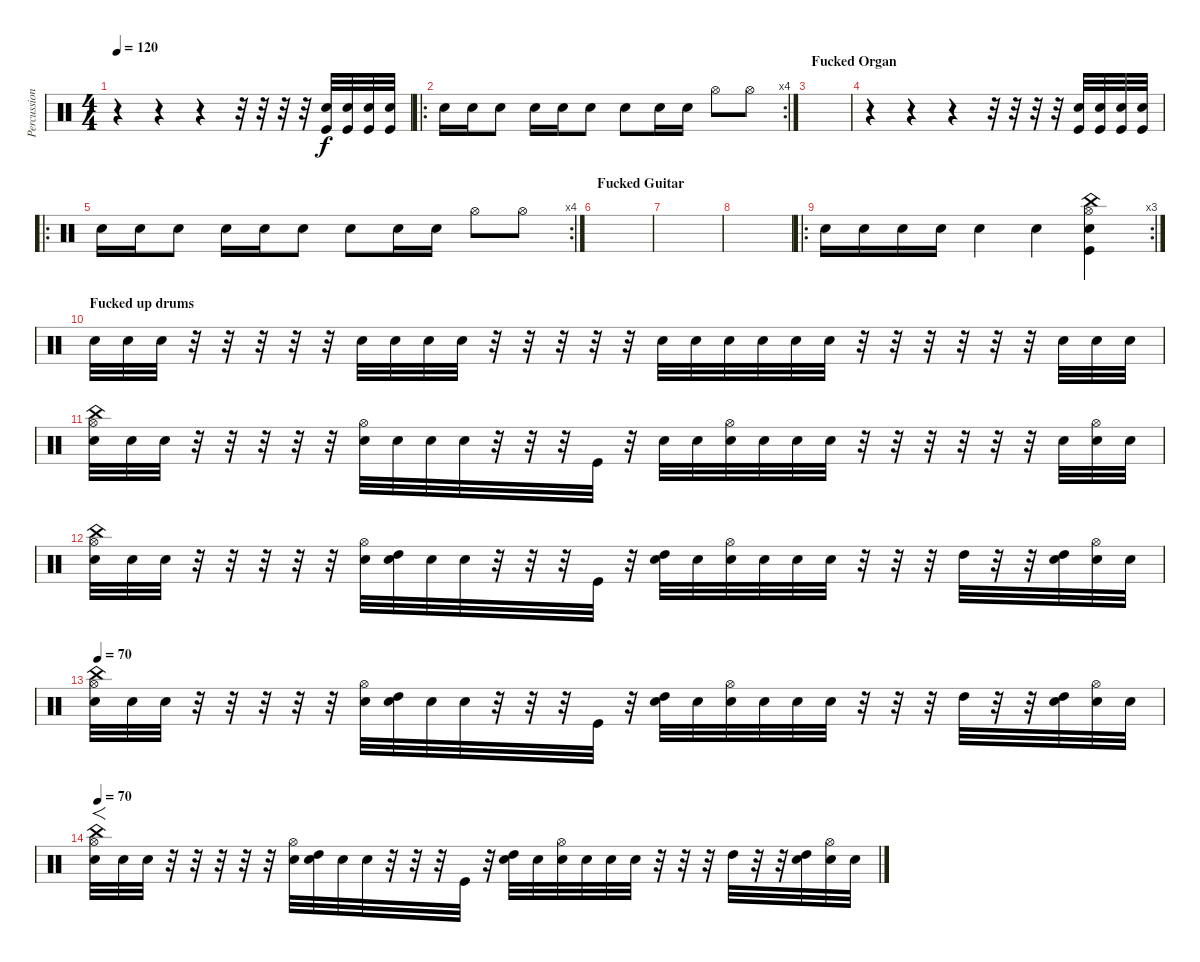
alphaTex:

\track ("Percussion" "Percussion") {instrument percussion}
\staff {score}
\articulation defaults
\ts (4 4)
\tempo 120
\clef neutral
\ks c
r.4{dy f} r.4 r.4 r.32 r.32 r.32 r.32 ("Kick (hit)" "Electric Snare (hit)").32 ("Kick (hit)" "Electric Snare (hit)").32 ("Kick (hit)" "Electric Snare (hit)").32 ("Kick (hit)" "Electric Snare (hit)").32 |
\ro
\rc 4 "Electric Snare (hit)".16 "Electric Snare (hit)".16 "Snare (hit) 2".8 "Electric Snare (hit)".16 "Electric Snare (hit)".16 "Snare (hit) 2".8 "Snare (hit) 2".8 "Electric Snare (hit)".16 "Electric Snare (hit)".16 "Hi-Hat (open)".8 "Hi-Hat (open)".8
|
\section ("" "Fucked Organ")
|
r.4 r.4 r.4 r.32 r.32 r.32 r.32 ("Kick (hit)" "Electric Snare (hit)").32 ("Kick (hit)" "Electric Snare (hit)").32 ("Kick (hit)" "Electric Snare (hit)").32 ("Kick (hit)" "Electric Snare (hit)").32 |
\ro
\rc 4 "Electric Snare (hit)".16 "Electric Snare (hit)".16 "Snare (hit) 2".8 "Electric Snare (hit)".16 "Electric Snare (hit)".16 "Snare (hit) 2".8 "Snare (hit) 2".8 "Electric Snare (hit)".16 "Electric Snare (hit)".16 "Hi-Hat (open)".8 "Hi-Hat (open)".8
|
\section ("" "Fucked Guitar")
|
|
|
\ro
\rc 3 "Electric Snare (hit)".16 "Electric Snare (hit)".16 "Electric Snare (hit)".16 "Electric Snare (hit)".16 "Electric Snare (hit)".4 "Electric Snare (hit)".4
("China (hit)" "Kick (hit)" "Hi-Hat (open)" "Electric Snare (hit)").4 |
\section ("" "Fucked up drums")
"Electric Snare (hit)".32 "Electric Snare (hit)".32 "Electric Snare (hit)".32 r.32 r.32 r.32 r.32 r.32 "Electric Snare (hit)".32 "Electric Snare (hit)".32 "Electric Snare (hit)".32 "Electric Snare (hit)".32 r.32 r.32 r.32 r.32 r.32 "Electric Snare (hit)".32 "Electric Snare (hit)".32 "Electric Snare (hit)".32 "Electric Snare (hit)".32 "Electric Snare (hit)".32 "Electric Snare (hit)".32 r.32 r.32 r.32 r.32 r.32 r.32 "Electric Snare (hit)".32 "Electric Snare (hit)".32 "Electric Snare (hit)".32 |
("China (hit)" "Hi-Hat (open)" "Electric Snare (hit)").32 "Electric Snare (hit)".32 "Electric Snare (hit)".32 r.32 r.32 r.32 r.32 r.32 ("Hi-Hat (open)" "Electric Snare (hit)").32 "Electric Snare (hit)".32 "Electric Snare (hit)".32 "Electric Snare (hit)".32 r.32 r.32 r.32 "Kick (hit)".32 r.32 "Electric Snare (hit)".32 "Electric Snare (hit)".32 ("Hi-Hat (open)" "Electric Snare (hit)").32 "Electric Snare (hit)".32 "Electric Snare (hit)".32 "Electric Snare (hit)".32 r.32 r.32 r.32 r.32 r.32 r.32 "Electric Snare (hit)".32 ("Hi-Hat (open)" "Electric Snare (hit)").32 "Electric Snare (hit)".32 |
("China (hit)" "Hi-Hat (open)" "Electric Snare (hit)").32 "Electric Snare (hit)".32 "Electric Snare (hit)".32 r.32 r.32 r.32 r.32 r.32 ("Hi-Hat (open)" "Electric Snare (hit)").32 ("High Tom (hit)" "Electric Snare (hit)").32 "Electric Snare (hit)".32 "Electric Snare (hit)".32 r.32 r.32 r.32 "Kick (hit)".32 r.32 ("High Tom (hit)" "Electric Snare (hit)").32 "Electric Snare (hit)".32 ("Hi-Hat (open)" "Electric Snare (hit)").32 "Electric Snare (hit)".32 "Electric Snare (hit)".32 "Electric Snare (hit)".32 r.32 r.32 r.32 "High Tom (hit)".32 r.32 r.32 ("High Tom (hit)" "Electric Snare (hit)").32 ("Hi-Hat (open)" "Electric Snare (hit)").32 "Electric Snare (hit)".32 |
\tempo 70
("China (hit)" "Hi-Hat (open)" "Electric Snare (hit)").32 "Electric Snare (hit)".32 "Electric Snare (hit)".32 r.32 r.32 r.32 r.32 r.32 ("Hi-Hat (open)" "Electric Snare (hit)").32 ("High Tom (hit)" "Electric Snare (hit)").32 "Electric Snare (hit)".32 "Electric Snare (hit)".32 r.32 r.32 r.32 "Kick (hit)".32 r.32 ("High Tom (hit)" "Electric Snare (hit)").32 "Electric Snare (hit)".32 ("Hi-Hat (open)" "Electric Snare (hit)").32 "Electric Snare (hit)".32 "Electric Snare (hit)".32 "Electric Snare (hit)".32 r.32 r.32 r.32 "High Tom (hit)".32 r.32 r.32 ("High Tom (hit)" "Electric Snare (hit)").32 ("Hi-Hat (open)" "Electric Snare (hit)").32 "Electric Snare (hit)".32 |
\tempo 120
\tempo 70
("China (hit)" "Hi-Hat (open)" "Electric Snare (hit)").32{f} "Electric Snare (hit)".32 "Electric Snare (hit)".32 r.32 r.32 r.32 r.32 r.32 ("Hi-Hat (open)" "Electric Snare (hit)").32 ("High Tom (hit)" "Electric Snare (hit)").32 "Electric Snare (hit)".32 "Electric Snare (hit)".32 r.32 r.32 r.32 "Kick (hit)".32 r.32 ("High Tom (hit)" "Electric Snare (hit)").32 "Electric Snare (hit)".32 ("Hi-Hat (open)" "Electric Snare (hit)").32 "Electric Snare (hit)".32 "Electric Snare (hit)".32 "Electric Snare (hit)".32 r.32 r.32 r.32 "High Tom (hit)".32 r.32 r.32 ("High Tom (hit)" "Electric Snare (hit)").32 ("Hi-Hat (open)" "Electric Snare (hit)").32 "Electric Snare (hit)".32
